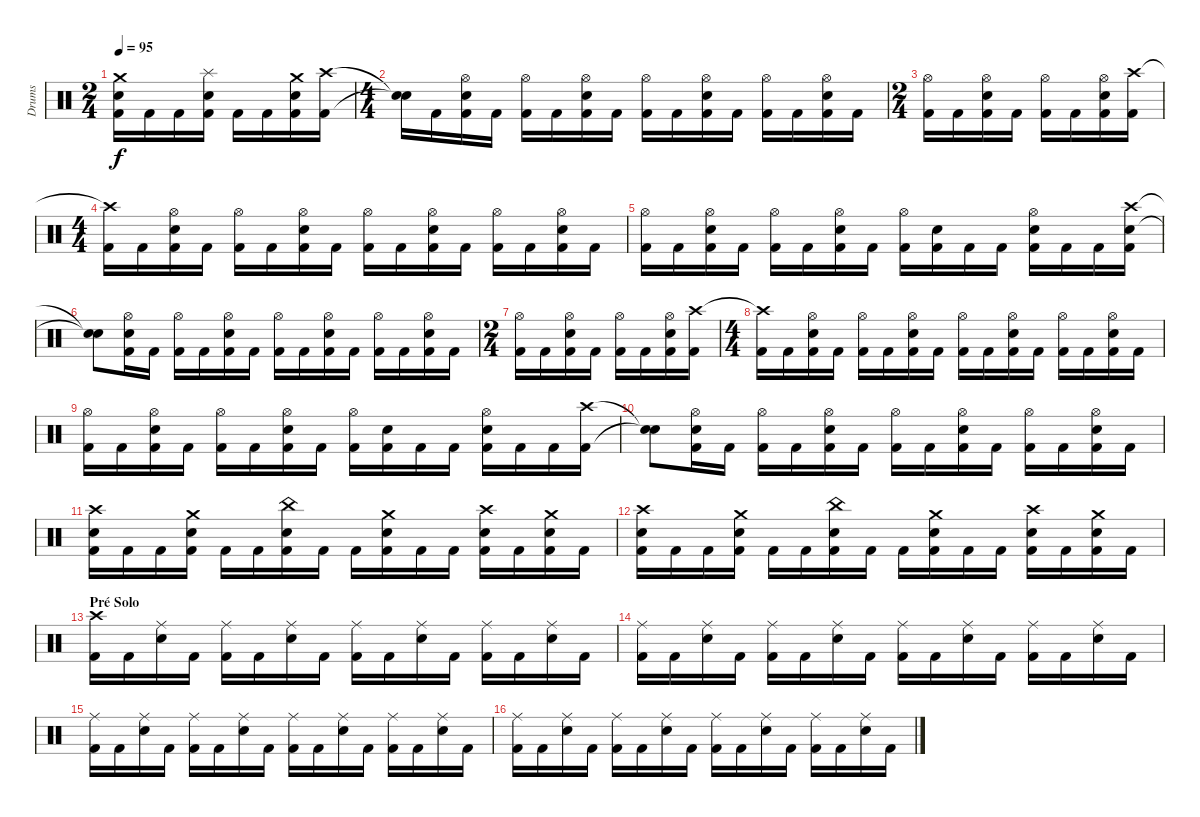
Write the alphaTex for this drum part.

\track ("Drums" "Drums") {instrument percussion}
\staff {score}
\articulation defaults
\ts (2 4)
\tempo 95
\clef neutral
\ks c
("Crash medium (hit)" "Snare (hit) 2" "Kick (hit) 2").16{dy f} "Kick (hit) 2".16 "Kick (hit) 2".16 ("Splash (hit)" "Snare (hit) 2" "Kick (hit) 2").16 "Kick (hit) 2".16 "Kick (hit) 2".16 ("Crash medium (hit)" "Snare (hit) 2" "Kick (hit) 2").16 ("Crash high (hit)" "Kick (hit) 2").16 |
\ts (4 4)
("Snare (hit)"{t} "Snare (hit)"{t}).16 "Kick (hit) 2".16 ("Hi-Hat (open)" "Snare (hit) 2" "Kick (hit) 2").16 "Kick (hit) 2".16 ("Hi-Hat (open)" "Kick (hit) 2").16 "Kick (hit) 2".16 ("Hi-Hat (open)" "Snare (hit) 2" "Kick (hit) 2").16 "Kick (hit) 2".16 ("Hi-Hat (open)" "Kick (hit) 2").16 "Kick (hit) 2".16 ("Hi-Hat (open)" "Snare (hit) 2" "Kick (hit) 2").16 "Kick (hit) 2".16 ("Hi-Hat (open)" "Kick (hit) 2").16 "Kick (hit) 2".16 ("Hi-Hat (open)" "Snare (hit) 2" "Kick (hit) 2").16 "Kick (hit) 2".16 |
\ts (2 4)
("Hi-Hat (open)" "Kick (hit) 2").16 "Kick (hit) 2".16 ("Hi-Hat (open)" "Snare (hit) 2" "Kick (hit) 2").16 "Kick (hit) 2".16 ("Hi-Hat (open)" "Kick (hit) 2").16 "Kick (hit) 2".16 ("Hi-Hat (open)" "Snare (hit) 2" "Kick (hit) 2").16 ("Crash high (hit)" "Kick (hit) 2").16 |
\ts (4 4)
("Crash high (hit)"{t} "Kick (hit) 2").16 "Kick (hit) 2".16 ("Hi-Hat (open)" "Snare (hit) 2" "Kick (hit) 2").16 "Kick (hit) 2".16 ("Hi-Hat (open)" "Kick (hit) 2").16 "Kick (hit) 2".16 ("Hi-Hat (open)" "Snare (hit) 2" "Kick (hit) 2").16 "Kick (hit) 2".16 ("Hi-Hat (open)" "Kick (hit) 2").16 "Kick (hit) 2".16 ("Hi-Hat (open)" "Snare (hit) 2" "Kick (hit) 2").16 "Kick (hit) 2".16 ("Hi-Hat (open)" "Kick (hit) 2").16 "Kick (hit) 2".16 ("Hi-Hat (open)" "Snare (hit) 2" "Kick (hit) 2").16 "Kick (hit) 2".16 |
("Hi-Hat (open)" "Kick (hit) 2").16 "Kick (hit) 2".16 ("Hi-Hat (open)" "Snare (hit) 2" "Kick (hit) 2").16 "Kick (hit) 2".16 ("Hi-Hat (open)" "Kick (hit) 2").16 "Kick (hit) 2".16 ("Hi-Hat (open)" "Snare (hit) 2" "Kick (hit) 2").16 "Kick (hit) 2".16 ("Hi-Hat (open)" "Kick (hit) 2").16 ("Snare (hit) 2" "Kick (hit) 2").16 "Kick (hit) 2".16 "Kick (hit) 2".16 ("Hi-Hat (open)" "Snare (hit) 2" "Kick (hit) 2").16 "Kick (hit) 2".16 "Kick (hit) 2".16 ("Crash high (hit)" "Snare (hit) 2" "Kick (hit) 2").16 |
("Snare (hit)"{t} "Snare (hit)"{t}).8 ("Hi-Hat (open)" "Snare (hit) 2" "Kick (hit) 2").16 "Kick (hit) 2".16 ("Hi-Hat (open)" "Kick (hit) 2").16 "Kick (hit) 2".16 ("Hi-Hat (open)" "Snare (hit) 2" "Kick (hit) 2").16 "Kick (hit) 2".16 ("Hi-Hat (open)" "Kick (hit) 2").16 "Kick (hit) 2".16 ("Hi-Hat (open)" "Snare (hit) 2" "Kick (hit) 2").16 "Kick (hit) 2".16 ("Hi-Hat (open)" "Kick (hit) 2").16 "Kick (hit) 2".16 ("Hi-Hat (open)" "Snare (hit) 2" "Kick (hit) 2").16 "Kick (hit) 2".16 |
\ts (2 4)
("Hi-Hat (open)" "Kick (hit) 2").16 "Kick (hit) 2".16 ("Hi-Hat (open)" "Snare (hit) 2" "Kick (hit) 2").16 "Kick (hit) 2".16 ("Hi-Hat (open)" "Kick (hit) 2").16 "Kick (hit) 2".16 ("Hi-Hat (open)" "Snare (hit) 2" "Kick (hit) 2").16 ("Crash high (hit)" "Kick (hit) 2").16 |
\ts (4 4)
("Crash high (hit)"{t} "Kick (hit) 2").16 "Kick (hit) 2".16 ("Hi-Hat (open)" "Snare (hit) 2" "Kick (hit) 2").16 "Kick (hit) 2".16 ("Hi-Hat (open)" "Kick (hit) 2").16 "Kick (hit) 2".16 ("Hi-Hat (open)" "Snare (hit) 2" "Kick (hit) 2").16 "Kick (hit) 2".16 ("Hi-Hat (open)" "Kick (hit) 2").16 "Kick (hit) 2".16 ("Hi-Hat (open)" "Snare (hit) 2" "Kick (hit) 2").16 "Kick (hit) 2".16 ("Hi-Hat (open)" "Kick (hit) 2").16 "Kick (hit) 2".16 ("Hi-Hat (open)" "Snare (hit) 2" "Kick (hit) 2").16 "Kick (hit) 2".16 |
("Hi-Hat (open)" "Kick (hit) 2").16 "Kick (hit) 2".16 ("Hi-Hat (open)" "Snare (hit) 2" "Kick (hit) 2").16 "Kick (hit) 2".16 ("Hi-Hat (open)" "Kick (hit) 2").16 "Kick (hit) 2".16 ("Hi-Hat (open)" "Snare (hit) 2" "Kick (hit) 2").16 "Kick (hit) 2".16 ("Hi-Hat (open)" "Kick (hit) 2").16 ("Snare (hit) 2" "Kick (hit) 2").16 "Kick (hit) 2".16 "Kick (hit) 2".16 ("Hi-Hat (open)" "Snare (hit) 2" "Kick (hit) 2").16 "Kick (hit) 2".16 "Kick (hit) 2".16 ("Crash high (hit)" "Kick (hit) 2").16 |
("Snare (hit)"{t} "Snare (hit)"{t}).8 ("Hi-Hat (open)" "Snare (hit) 2" "Kick (hit) 2").16 "Kick (hit) 2".16 ("Hi-Hat (open)" "Kick (hit) 2").16 "Kick (hit) 2".16 ("Hi-Hat (open)" "Snare (hit) 2" "Kick (hit) 2").16 "Kick (hit) 2".16 ("Hi-Hat (open)" "Kick (hit) 2").16 "Kick (hit) 2".16 ("Hi-Hat (open)" "Snare (hit) 2" "Kick (hit) 2").16 "Kick (hit) 2".16 ("Hi-Hat (open)" "Kick (hit) 2").16 "Kick (hit) 2".16 ("Hi-Hat (open)" "Snare (hit) 2" "Kick (hit) 2").16 "Kick (hit) 2".16 |
("Crash high (hit)" "Snare (hit) 2" "Kick (hit) 2").16 "Kick (hit) 2".16 "Kick (hit) 2".16 ("Crash medium (hit)" "Snare (hit) 2" "Kick (hit) 2").16 "Kick (hit) 2".16 "Kick (hit) 2".16 ("China (hit)" "Snare (hit) 2" "Kick (hit) 2").16 "Kick (hit) 2".16 "Kick (hit) 2".16 ("Crash medium (hit)" "Snare (hit) 2" "Kick (hit) 2").16 "Kick (hit) 2".16 "Kick (hit) 2".16 ("Crash high (hit)" "Snare (hit) 2" "Kick (hit) 2").16 "Kick (hit) 2".16 ("Crash medium (hit)" "Snare (hit) 2" "Kick (hit) 2").16 "Kick (hit) 2".16 |
("Crash high (hit)" "Snare (hit) 2" "Kick (hit) 2").16 "Kick (hit) 2".16 "Kick (hit) 2".16 ("Crash medium (hit)" "Snare (hit) 2" "Kick (hit) 2").16 "Kick (hit) 2".16 "Kick (hit) 2".16 ("China (hit)" "Snare (hit) 2" "Kick (hit) 2").16 "Kick (hit) 2".16 "Kick (hit) 2".16 ("Crash medium (hit)" "Snare (hit) 2" "Kick (hit) 2").16 "Kick (hit) 2".16 "Kick (hit) 2".16 ("Crash high (hit)" "Snare (hit) 2" "Kick (hit) 2").16 "Kick (hit) 2".16 ("Crash medium (hit)" "Snare (hit) 2" "Kick (hit) 2").16 "Kick (hit) 2".16 |
\section ("" "Pré Solo")
("Crash high (hit)" "Kick (hit) 2").16 "Kick (hit) 2".16 ("Ride (middle)" "Snare (hit) 2").16 "Kick (hit) 2".16 ("Ride (middle)" "Kick (hit) 2").16 "Kick (hit) 2".16 ("Ride (middle)" "Snare (hit) 2").16 "Kick (hit) 2".16 ("Ride (middle)" "Kick (hit) 2").16 "Kick (hit) 2".16 ("Ride (middle)" "Snare (hit) 2").16 "Kick (hit) 2".16 ("Ride (middle)" "Kick (hit) 2").16 "Kick (hit) 2".16 ("Ride (middle)" "Snare (hit) 2").16 "Kick (hit) 2".16 |
("Ride (middle)" "Kick (hit) 2").16 "Kick (hit) 2".16 ("Ride (middle)" "Snare (hit) 2").16 "Kick (hit) 2".16 ("Ride (middle)" "Kick (hit) 2").16 "Kick (hit) 2".16 ("Ride (middle)" "Snare (hit) 2").16 "Kick (hit) 2".16 ("Ride (middle)" "Kick (hit) 2").16 "Kick (hit) 2".16 ("Ride (middle)" "Snare (hit) 2").16 "Kick (hit) 2".16 ("Ride (middle)" "Kick (hit) 2").16 "Kick (hit) 2".16 ("Ride (middle)" "Snare (hit) 2").16 "Kick (hit) 2".16 |
("Ride (middle)" "Kick (hit) 2").16 "Kick (hit) 2".16 ("Ride (middle)" "Snare (hit) 2").16 "Kick (hit) 2".16 ("Ride (middle)" "Kick (hit) 2").16 "Kick (hit) 2".16 ("Ride (middle)" "Snare (hit) 2").16 "Kick (hit) 2".16 ("Ride (middle)" "Kick (hit) 2").16 "Kick (hit) 2".16 ("Ride (middle)" "Snare (hit) 2").16 "Kick (hit) 2".16 ("Ride (middle)" "Kick (hit) 2").16 "Kick (hit) 2".16 ("Ride (middle)" "Snare (hit) 2").16 "Kick (hit) 2".16 |
("Ride (middle)" "Kick (hit) 2").16 "Kick (hit) 2".16 ("Ride (middle)" "Snare (hit) 2").16 "Kick (hit) 2".16 ("Ride (middle)" "Kick (hit) 2").16 "Kick (hit) 2".16 ("Ride (middle)" "Snare (hit) 2").16 "Kick (hit) 2".16 ("Ride (middle)" "Kick (hit) 2").16 "Kick (hit) 2".16 ("Ride (middle)" "Snare (hit) 2").16 "Kick (hit) 2".16 ("Ride (middle)" "Kick (hit) 2").16 "Kick (hit) 2".16 ("Ride (middle)" "Snare (hit) 2").16 "Kick (hit) 2".16
